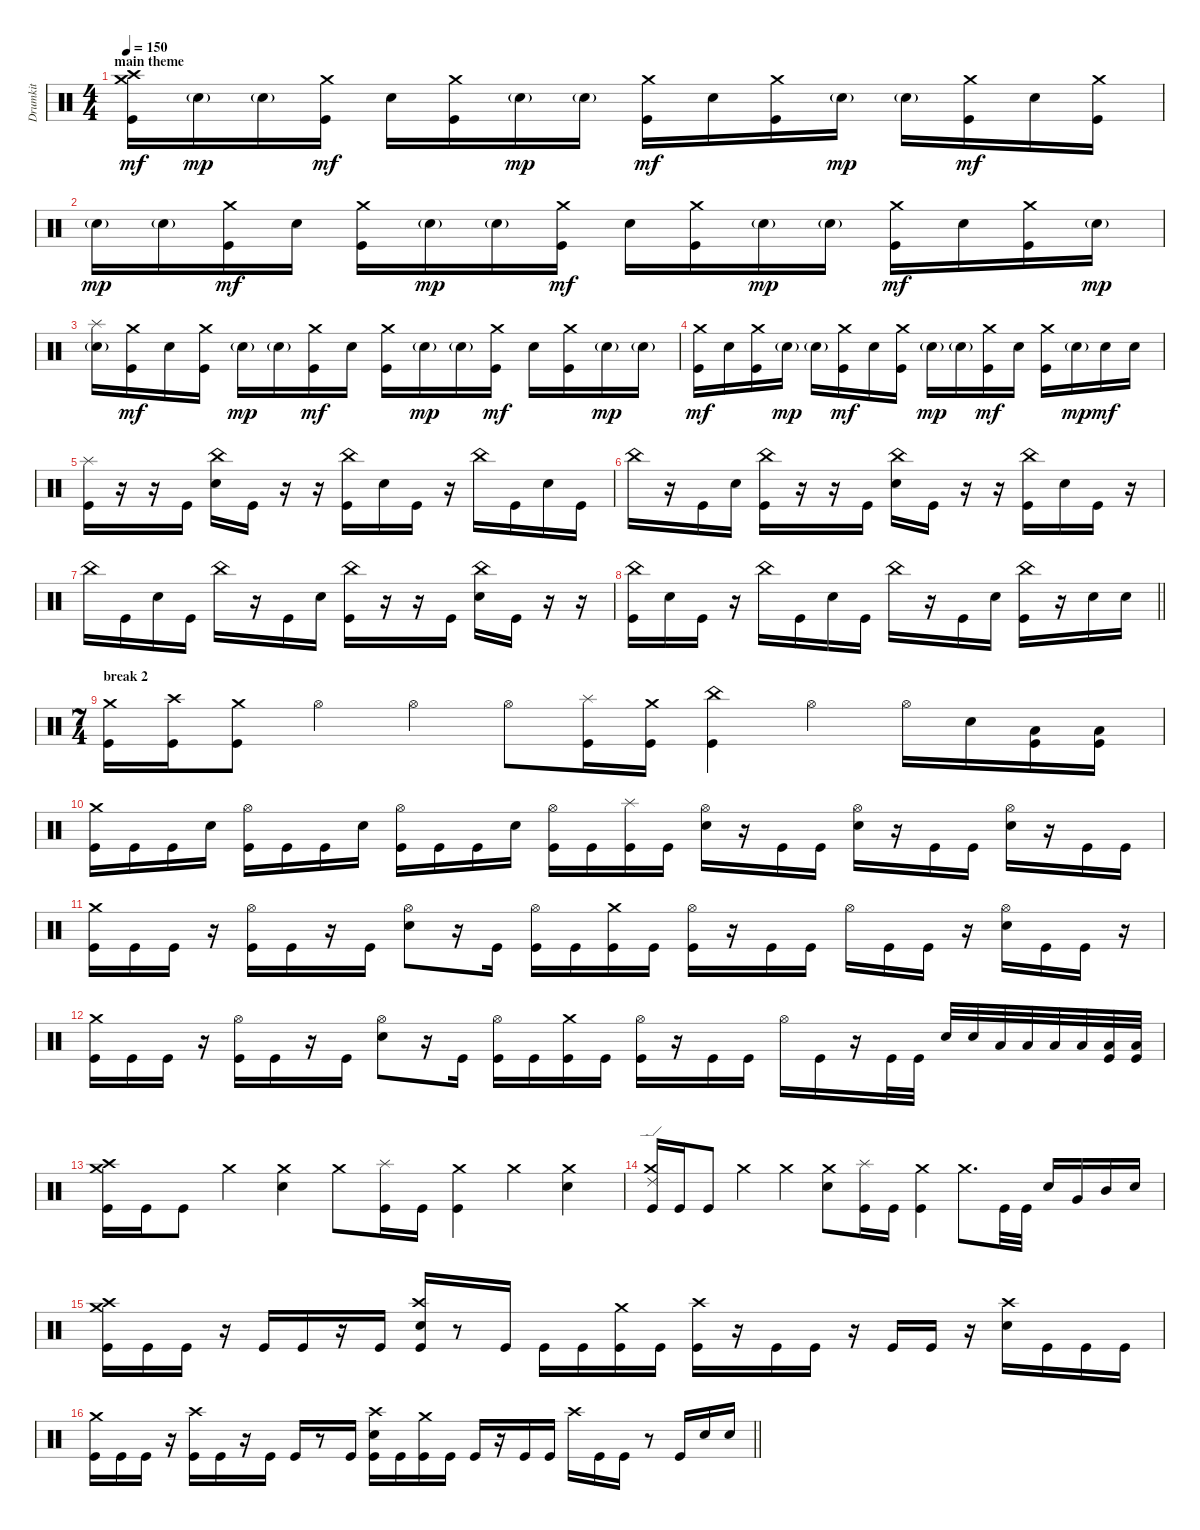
\track ("Drumkit" "Drumkit") {instrument percussion}
\staff {score}
\articulation defaults
\ts (4 4)
\section ("" "main theme")
\tempo 150
\clef neutral
\ks c
("Kick (hit)" "Crash medium (hit)" "Crash high (hit)").16{dy mf} "Snare (hit) 2"{g}.16{dy mp} "Snare (hit) 2"{g}.16 ("Kick (hit)" "Crash medium (hit)").16{dy mf} "Snare (hit) 2".16 ("Kick (hit)" "Crash medium (hit)").16 "Snare (hit) 2"{g}.16{dy mp} "Snare (hit) 2"{g}.16 ("Crash medium (hit)" "Kick (hit)").16{dy mf} "Snare (hit) 2".16 ("Kick (hit)" "Crash medium (hit)").16 "Snare (hit) 2"{g}.16{dy mp} "Snare (hit) 2"{g}.16 ("Kick (hit)" "Crash medium (hit)").16{dy mf} "Snare (hit) 2".16 ("Kick (hit)" "Crash medium (hit)").16 |
"Snare (hit) 2"{g}.16{dy mp} "Snare (hit) 2"{g}.16 ("Crash medium (hit)" "Kick (hit)").16{dy mf} "Snare (hit) 2".16 ("Kick (hit)" "Crash medium (hit)").16 "Snare (hit) 2"{g}.16{dy mp} "Snare (hit) 2"{g}.16 ("Kick (hit)" "Crash medium (hit)").16{dy mf} "Snare (hit) 2".16 ("Kick (hit)" "Crash medium (hit)").16 "Snare (hit) 2"{g}.16{dy mp} "Snare (hit) 2"{g}.16 ("Crash medium (hit)" "Kick (hit)").16{dy mf} "Snare (hit) 2".16 ("Crash medium (hit)" "Kick (hit)").16 "Snare (hit) 2"{g}.16{dy mp} |
("Snare (hit) 2"{g} "Splash (hit)").16 ("Crash medium (hit)" "Kick (hit)").16{dy mf} "Snare (hit) 2".16 ("Kick (hit)" "Crash medium (hit)").16 "Snare (hit) 2"{g}.16{dy mp} "Snare (hit) 2"{g}.16 ("Kick (hit)" "Crash medium (hit)").16{dy mf} "Snare (hit) 2".16 ("Kick (hit)" "Crash medium (hit)").16 "Snare (hit) 2"{g}.16{dy mp} "Snare (hit) 2"{g}.16 ("Crash medium (hit)" "Kick (hit)").16{dy mf} "Snare (hit) 2".16 ("Crash medium (hit)" "Kick (hit)").16 "Snare (hit) 2"{g}.16{dy mp} "Snare (hit) 2"{g}.16 |
("Crash medium (hit)" "Kick (hit)").16{dy mf} "Snare (hit) 2".16 ("Kick (hit)" "Crash medium (hit)").16 "Snare (hit) 2"{g}.16{dy mp} "Snare (hit) 2"{g}.16 ("Kick (hit)" "Crash medium (hit)").16{dy mf} "Snare (hit) 2".16 ("Kick (hit)" "Crash medium (hit)").16 "Snare (hit) 2"{g}.16{dy mp} "Snare (hit) 2"{g}.16 ("Crash medium (hit)" "Kick (hit)").16{dy mf} "Snare (hit) 2".16 ("Crash medium (hit)" "Kick (hit)").16 "Snare (hit) 2"{g}.16{dy mp} "Snare (hit) 2".16{dy mf} "Snare (hit) 2".16 |
("Kick (hit)" "Splash (hit)").16 r.16 r.16 "Kick (hit)".16 ("China (hit)" "Snare (hit) 2").16 "Kick (hit)".16 r.16 r.16 ("China (hit)" "Kick (hit)").16 "Snare (hit) 2".16 "Kick (hit)".16 r.16 "China (hit)".16 "Kick (hit)".16 "Snare (hit) 2".16 "Kick (hit)".16 |
"China (hit)".16 r.16 "Kick (hit)".16 "Snare (hit) 2".16 ("Kick (hit)" "China (hit)").16 r.16 r.16 "Kick (hit)".16 ("China (hit)" "Snare (hit) 2").16 "Kick (hit)".16 r.16 r.16 ("Kick (hit)" "China (hit)").16 "Snare (hit) 2".16 "Kick (hit)".16 r.16 |
"China (hit)".16 "Kick (hit)".16 "Snare (hit) 2".16 "Kick (hit)".16 "China (hit)".16 r.16 "Kick (hit)".16 "Snare (hit) 2".16 ("Kick (hit)" "China (hit)").16 r.16 r.16 "Kick (hit)".16 ("China (hit)" "Snare (hit) 2").16 "Kick (hit)".16 r.16 r.16 |
\barLineRight lightlight
("China (hit)" "Kick (hit)").16 "Snare (hit) 2".16 "Kick (hit)".16 r.16 "China (hit)".16 "Kick (hit)".16 "Snare (hit) 2".16 "Kick (hit)".16 "China (hit)".16 r.16 "Kick (hit)".16 "Snare (hit) 2".16 ("Kick (hit)" "China (hit)").16 r.16 "Snare (hit) 2".16 "Snare (hit) 2".16 |
\ts (7 4)
\section ("" "break 2")
("Kick (hit)" "Crash medium (hit)").16 ("Kick (hit)" "Crash high (hit)").16 ("Kick (hit)" "Crash medium (hit)").8 "Hi-Hat (open)".4 "Hi-Hat (open)".4 "Hi-Hat (open)".8 ("Kick (hit)" "Splash (hit)").16 ("Kick (hit)" "Crash medium (hit)").16 ("Kick (hit)" "China (hit)").4 "Hi-Hat (open)".4 "Hi-Hat (open)".16 "Snare (hit) 2".16 ("Low Floor Tom (hit)" "Kick (hit)").16 ("Low Floor Tom (hit)" "Kick (hit)").16 |
("Kick (hit)" "Crash medium (hit)").16 "Kick (hit)".16 "Kick (hit)".16 "Snare (hit) 2".16 ("Kick (hit)" "Hi-Hat (open)").16 "Kick (hit)".16 "Kick (hit)".16 "Snare (hit) 2".16 ("Kick (hit)" "Hi-Hat (open)").16 "Kick (hit)".16 "Kick (hit)".16 "Snare (hit) 2".16 ("Kick (hit)" "Hi-Hat (open)").16 "Kick (hit)".16 ("Kick (hit)" "Splash (hit)").16 "Kick (hit)".16 ("Hi-Hat (open)" "Snare (hit) 2").16 r.16 "Kick (hit)".16 "Kick (hit)".16 ("Hi-Hat (open)" "Snare (hit) 2").16 r.16 "Kick (hit)".16 "Kick (hit)".16 ("Hi-Hat (open)" "Snare (hit) 2").16 r.16 "Kick (hit)".16 "Kick (hit)".16 |
("Kick (hit)" "Crash medium (hit)").16 "Kick (hit)".16 "Kick (hit)".16 r.16 ("Kick (hit)" "Hi-Hat (open)").16 "Kick (hit)".16 r.16 "Kick (hit)".16 ("Hi-Hat (open)" "Snare (hit) 2").8 r.16 "Kick (hit)".16 ("Kick (hit)" "Hi-Hat (open)").16 "Kick (hit)".16 ("Kick (hit)" "Crash medium (hit)").16 "Kick (hit)".16 ("Kick (hit)" "Hi-Hat (open)").16 r.16 "Kick (hit)".16 "Kick (hit)".16 "Hi-Hat (open)".16 "Kick (hit)".16 "Kick (hit)".16 r.16 ("Hi-Hat (open)" "Snare (hit) 2").16 "Kick (hit)".16 "Kick (hit)".16 r.16 |
("Kick (hit)" "Crash medium (hit)").16 "Kick (hit)".16 "Kick (hit)".16 r.16 ("Kick (hit)" "Hi-Hat (open)").16 "Kick (hit)".16 r.16 "Kick (hit)".16 ("Hi-Hat (open)" "Snare (hit) 2").8 r.16 "Kick (hit)".16 ("Kick (hit)" "Hi-Hat (open)").16 "Kick (hit)".16 ("Kick (hit)" "Crash medium (hit)").16 "Kick (hit)".16 ("Kick (hit)" "Hi-Hat (open)").16 r.16 "Kick (hit)".16 "Kick (hit)".16 "Hi-Hat (open)".16 "Kick (hit)".16 r.16 "Kick (hit)".32 "Kick (hit)".32 "Snare (hit) 2".32 "Snare (hit) 2".32 "Low Tom (hit)".32 "Low Tom (hit)".32 "Low Tom (hit)".32 "Low Tom (hit)".32 ("Kick (hit)" "Low Floor Tom (hit)").32 ("Low Floor Tom (hit)" "Kick (hit)").32 |
("Kick (hit)" "Crash medium (hit)" "Crash high (hit)").16 "Kick (hit)".16 "Kick (hit)".8 "Crash medium (hit)".4 ("Crash medium (hit)" "Snare (hit) 2").4 "Crash medium (hit)".8 ("Kick (hit)" "Splash (hit)").16 "Kick (hit)".16 ("Kick (hit)" "Crash medium (hit)").4 "Crash medium (hit)".4 ("Crash medium (hit)" "Snare (hit) 2").4 |
("Kick (hit)" "Crash medium (hit)" "Ride (edge) 2").16 "Kick (hit)".16 "Kick (hit)".8 "Crash medium (hit)".4 "Crash medium (hit)".4 ("Crash medium (hit)" "Snare (hit) 2").8 ("Kick (hit)" "Splash (hit)").16 "Kick (hit)".16 ("Kick (hit)" "Crash medium (hit)").4 "Crash medium (hit)".8{d} "Kick (hit)".32 "Kick (hit)".32 "Snare (hit) 2".16 "Very Low Tom (hit)".16 "Mid Tom (hit)".16 "Snare (hit) 2".16 |
("Kick (hit)" "Crash high (hit)" "Crash medium (hit)").16 "Kick (hit)".16 "Kick (hit)".16 r.16 "Kick (hit)".16 "Kick (hit)".16 r.16 "Kick (hit)".16 ("Kick (hit)" "Crash high (hit)" "Snare (hit) 2").16 r.8 "Kick (hit)".16 "Kick (hit)".16 "Kick (hit)".16 ("Kick (hit)" "Crash medium (hit)").16 "Kick (hit)".16 ("Kick (hit)" "Crash high (hit)").16 r.16 "Kick (hit)".16 "Kick (hit)".16 r.16 "Kick (hit)".16 "Kick (hit)".16 r.16 ("Crash high (hit)" "Snare (hit) 2").16 "Kick (hit)".16 "Kick (hit)".16 "Kick (hit)".16 |
\barLineRight lightlight
("Kick (hit)" "Crash medium (hit)").16 "Kick (hit)".16 "Kick (hit)".16 r.16 ("Kick (hit)" "Crash high (hit)").16 "Kick (hit)".16 r.16 "Kick (hit)".16 "Kick (hit)".16 r.8 "Kick (hit)".16 ("Kick (hit)" "Crash high (hit)" "Snare (hit) 2").16 "Kick (hit)".16 ("Kick (hit)" "Crash medium (hit)").16 "Kick (hit)".16 "Kick (hit)".16 r.16 "Kick (hit)".16 "Kick (hit)".16 "Crash high (hit)".16 "Kick (hit)".16 "Kick (hit)".16 r.8 "Kick (hit)".16 "Snare (hit) 2".16 "Snare (hit) 2".16
